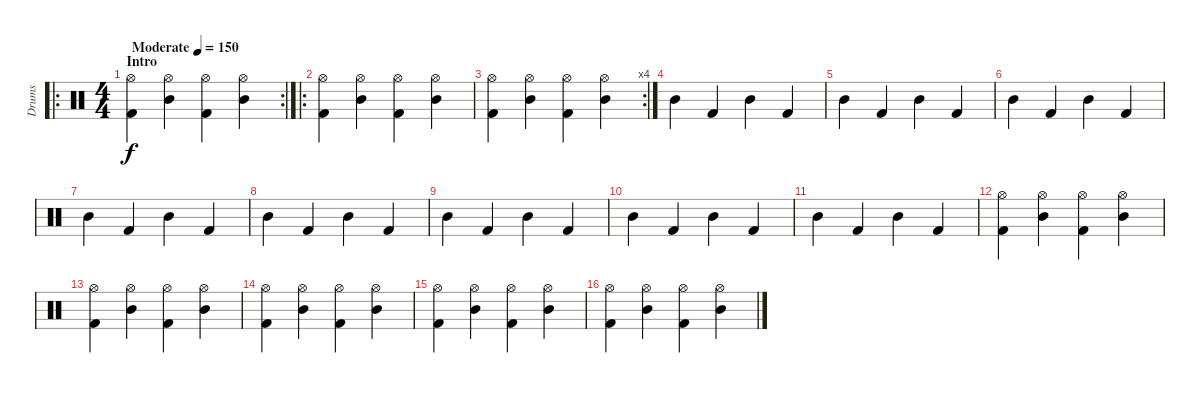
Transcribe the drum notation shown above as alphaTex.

\track ("Drums" "Drums") {instrument percussion}
\staff {score}
\articulation defaults
\ro
\rc 2
\ts (4 4)
\section ("" "Intro")
\tempo (150 "Moderate")
\clef neutral
\ks c
("Kick (hit) 2" "Hi-Hat (open)").4{dy f} ("Mid Tom (hit)" "Hi-Hat (open)").4 ("Kick (hit) 2" "Hi-Hat (open)").4 ("Mid Tom (hit)" "Hi-Hat (open)").4 |
\ro
("Kick (hit) 2" "Hi-Hat (open)").4 ("Mid Tom (hit)" "Hi-Hat (open)").4 ("Kick (hit) 2" "Hi-Hat (open)").4 ("Mid Tom (hit)" "Hi-Hat (open)").4 |
\rc 4
("Kick (hit) 2" "Hi-Hat (open)").4 ("Mid Tom (hit)" "Hi-Hat (open)").4 ("Kick (hit) 2" "Hi-Hat (open)").4 ("Mid Tom (hit)" "Hi-Hat (open)").4 |
"Mid Tom (hit)".4 "Kick (hit) 2".4 "Mid Tom (hit)".4 "Kick (hit) 2".4 |
"Mid Tom (hit)".4 "Kick (hit) 2".4 "Mid Tom (hit)".4 "Kick (hit) 2".4 |
"Mid Tom (hit)".4 "Kick (hit) 2".4 "Mid Tom (hit)".4 "Kick (hit) 2".4 |
"Mid Tom (hit)".4 "Kick (hit) 2".4 "Mid Tom (hit)".4 "Kick (hit) 2".4 |
"Mid Tom (hit)".4 "Kick (hit) 2".4 "Mid Tom (hit)".4 "Kick (hit) 2".4 |
"Mid Tom (hit)".4 "Kick (hit) 2".4 "Mid Tom (hit)".4 "Kick (hit) 2".4 |
"Mid Tom (hit)".4 "Kick (hit) 2".4 "Mid Tom (hit)".4 "Kick (hit) 2".4 |
"Mid Tom (hit)".4 "Kick (hit) 2".4 "Mid Tom (hit)".4 "Kick (hit) 2".4 |
("Kick (hit) 2" "Hi-Hat (open)").4 ("Mid Tom (hit)" "Hi-Hat (open)").4 ("Kick (hit) 2" "Hi-Hat (open)").4 ("Mid Tom (hit)" "Hi-Hat (open)").4 |
("Kick (hit) 2" "Hi-Hat (open)").4 ("Mid Tom (hit)" "Hi-Hat (open)").4 ("Kick (hit) 2" "Hi-Hat (open)").4 ("Mid Tom (hit)" "Hi-Hat (open)").4 |
("Kick (hit) 2" "Hi-Hat (open)").4 ("Mid Tom (hit)" "Hi-Hat (open)").4 ("Kick (hit) 2" "Hi-Hat (open)").4 ("Mid Tom (hit)" "Hi-Hat (open)").4 |
("Kick (hit) 2" "Hi-Hat (open)").4 ("Mid Tom (hit)" "Hi-Hat (open)").4 ("Kick (hit) 2" "Hi-Hat (open)").4 ("Mid Tom (hit)" "Hi-Hat (open)").4 |
("Kick (hit) 2" "Hi-Hat (open)").4 ("Mid Tom (hit)" "Hi-Hat (open)").4 ("Kick (hit) 2" "Hi-Hat (open)").4 ("Mid Tom (hit)" "Hi-Hat (open)").4
